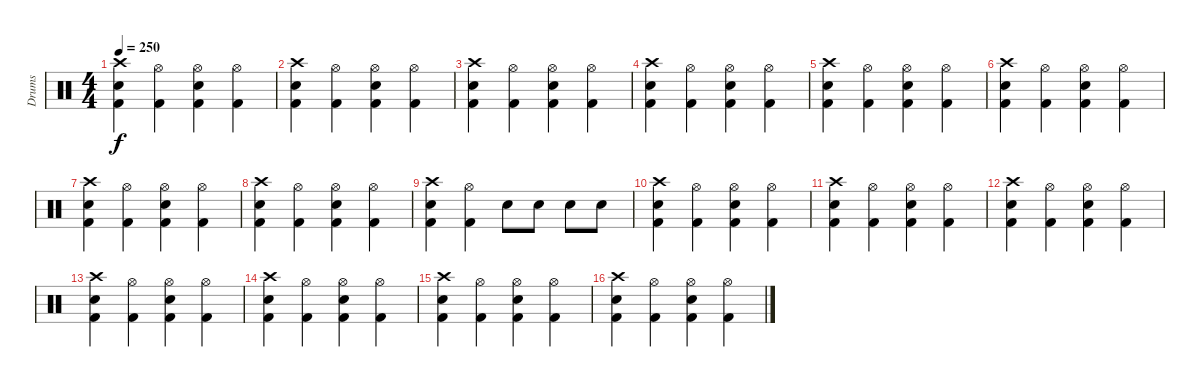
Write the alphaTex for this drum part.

\track ("Drums" "Drums") {instrument percussion}
\staff {score}
\articulation defaults
\ts (4 4)
\tempo 250
\clef neutral
\ks c
("Crash high (hit)" "Electric Snare (hit)" "Kick (hit) 2").4{dy f} ("Hi-Hat (open)" "Kick (hit) 2").4 ("Hi-Hat (open)" "Electric Snare (hit)" "Kick (hit) 2").4 ("Hi-Hat (open)" "Kick (hit) 2").4 |
("Crash high (hit)" "Electric Snare (hit)" "Kick (hit) 2").4 ("Hi-Hat (open)" "Kick (hit) 2").4 ("Hi-Hat (open)" "Electric Snare (hit)" "Kick (hit) 2").4 ("Hi-Hat (open)" "Kick (hit) 2").4 |
("Crash high (hit)" "Electric Snare (hit)" "Kick (hit) 2").4 ("Hi-Hat (open)" "Kick (hit) 2").4 ("Hi-Hat (open)" "Electric Snare (hit)" "Kick (hit) 2").4 ("Hi-Hat (open)" "Kick (hit) 2").4 |
("Crash high (hit)" "Electric Snare (hit)" "Kick (hit) 2").4 ("Hi-Hat (open)" "Kick (hit) 2").4 ("Hi-Hat (open)" "Electric Snare (hit)" "Kick (hit) 2").4 ("Hi-Hat (open)" "Kick (hit) 2").4 |
("Crash high (hit)" "Electric Snare (hit)" "Kick (hit) 2").4 ("Hi-Hat (open)" "Kick (hit) 2").4 ("Hi-Hat (open)" "Electric Snare (hit)" "Kick (hit) 2").4 ("Hi-Hat (open)" "Kick (hit) 2").4 |
("Crash high (hit)" "Electric Snare (hit)" "Kick (hit) 2").4 ("Hi-Hat (open)" "Kick (hit) 2").4 ("Hi-Hat (open)" "Electric Snare (hit)" "Kick (hit) 2").4 ("Hi-Hat (open)" "Kick (hit) 2").4 |
("Crash high (hit)" "Electric Snare (hit)" "Kick (hit) 2").4 ("Hi-Hat (open)" "Kick (hit) 2").4 ("Hi-Hat (open)" "Electric Snare (hit)" "Kick (hit) 2").4 ("Hi-Hat (open)" "Kick (hit) 2").4 |
("Crash high (hit)" "Electric Snare (hit)" "Kick (hit) 2").4 ("Hi-Hat (open)" "Kick (hit) 2").4 ("Hi-Hat (open)" "Electric Snare (hit)" "Kick (hit) 2").4 ("Hi-Hat (open)" "Kick (hit) 2").4 |
("Crash high (hit)" "Electric Snare (hit)" "Kick (hit) 2").4 ("Hi-Hat (open)" "Kick (hit) 2").4 "Electric Snare (hit)".8 "Electric Snare (hit)".8 "Electric Snare (hit)".8 "Electric Snare (hit)".8 |
("Crash high (hit)" "Electric Snare (hit)" "Kick (hit) 2").4 ("Hi-Hat (open)" "Kick (hit) 2").4 ("Hi-Hat (open)" "Electric Snare (hit)" "Kick (hit) 2").4 ("Hi-Hat (open)" "Kick (hit) 2").4 |
("Crash high (hit)" "Electric Snare (hit)" "Kick (hit) 2").4 ("Hi-Hat (open)" "Kick (hit) 2").4 ("Hi-Hat (open)" "Electric Snare (hit)" "Kick (hit) 2").4 ("Hi-Hat (open)" "Kick (hit) 2").4 |
("Crash high (hit)" "Electric Snare (hit)" "Kick (hit) 2").4 ("Hi-Hat (open)" "Kick (hit) 2").4 ("Hi-Hat (open)" "Electric Snare (hit)" "Kick (hit) 2").4 ("Hi-Hat (open)" "Kick (hit) 2").4 |
("Crash high (hit)" "Electric Snare (hit)" "Kick (hit) 2").4 ("Hi-Hat (open)" "Kick (hit) 2").4 ("Hi-Hat (open)" "Electric Snare (hit)" "Kick (hit) 2").4 ("Hi-Hat (open)" "Kick (hit) 2").4 |
("Crash high (hit)" "Electric Snare (hit)" "Kick (hit) 2").4 ("Hi-Hat (open)" "Kick (hit) 2").4 ("Hi-Hat (open)" "Electric Snare (hit)" "Kick (hit) 2").4 ("Hi-Hat (open)" "Kick (hit) 2").4 |
("Crash high (hit)" "Electric Snare (hit)" "Kick (hit) 2").4 ("Hi-Hat (open)" "Kick (hit) 2").4 ("Hi-Hat (open)" "Electric Snare (hit)" "Kick (hit) 2").4 ("Hi-Hat (open)" "Kick (hit) 2").4 |
("Crash high (hit)" "Electric Snare (hit)" "Kick (hit) 2").4 ("Hi-Hat (open)" "Kick (hit) 2").4 ("Hi-Hat (open)" "Electric Snare (hit)" "Kick (hit) 2").4 ("Hi-Hat (open)" "Kick (hit) 2").4
